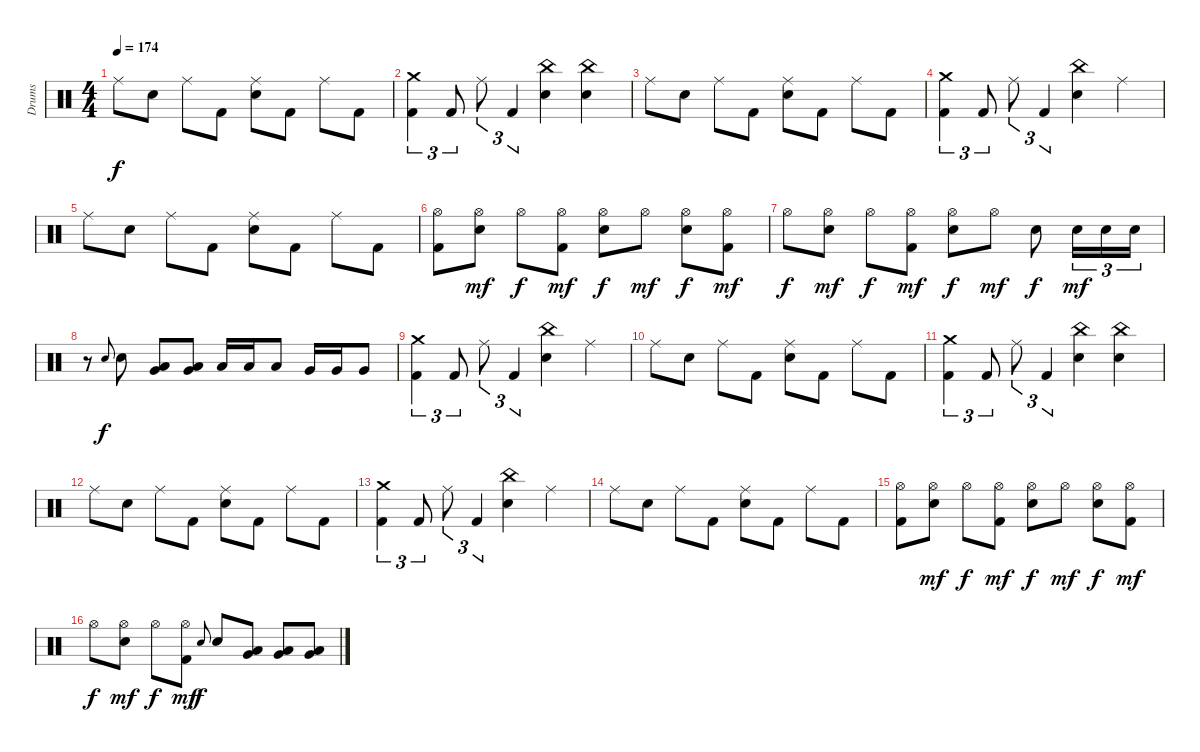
\track ("Drums" "Drums") {instrument percussion}
\staff {score}
\articulation defaults
\ts (4 4)
\tempo 174
\clef neutral
\ks c "Ride (middle)".8{dy f} "Electric Snare (hit)".8 "Ride (middle)".8 "Kick (hit) 2".8
("Ride (middle)" "Electric Snare (hit)").8 "Kick (hit) 2".8 "Ride (middle)".8 "Kick (hit) 2".8 |
("Crash medium (hit)" "Kick (hit) 2").4{tu (3 2)} "Kick (hit) 2".8{tu (3 2)} "Ride (middle)".8{tu (3 2)} "Kick (hit) 2".4{tu (3 2)} ("China (hit)" "Electric Snare (hit)").4 ("China (hit)" "Electric Snare (hit)").4 |
"Ride (middle)".8 "Electric Snare (hit)".8 "Ride (middle)".8 "Kick (hit) 2".8 ("Ride (middle)" "Electric Snare (hit)").8 "Kick (hit) 2".8 "Ride (middle)".8 "Kick (hit) 2".8 |
("Crash medium (hit)" "Kick (hit) 2").4{tu (3 2)} "Kick (hit) 2".8{tu (3 2)} "Ride (middle)".8{tu (3 2)} "Kick (hit) 2".4{tu (3 2)} ("China (hit)" "Electric Snare (hit)").4 "Ride (middle)".4 |
"Ride (middle)".8 "Electric Snare (hit)".8 "Ride (middle)".8 "Kick (hit) 2".8 ("Ride (middle)" "Electric Snare (hit)").8 "Kick (hit) 2".8 "Ride (middle)".8 "Kick (hit) 2".8 |
("Hi-Hat (open)" "Kick (hit) 2").8 ("Hi-Hat (open)" "Electric Snare (hit)").8{dy mf} "Hi-Hat (open)".8{dy f} ("Hi-Hat (open)" "Kick (hit) 2").8{dy mf} ("Hi-Hat (open)" "Electric Snare (hit)").8{dy f} "Hi-Hat (open)".8{dy mf} ("Hi-Hat (open)" "Electric Snare (hit)").8{dy f} ("Hi-Hat (open)" "Kick (hit) 2").8{dy mf} |
"Hi-Hat (open)".8{dy f} ("Hi-Hat (open)" "Electric Snare (hit)").8{dy mf} "Hi-Hat (open)".8{dy f} ("Hi-Hat (open)" "Kick (hit) 2").8{dy mf} ("Hi-Hat (open)" "Electric Snare (hit)").8{dy f} "Hi-Hat (open)".8{dy mf} "Electric Snare (hit)".8{dy f} "Electric Snare (hit)".16{tu (3 2) dy mf} "Electric Snare (hit)".16{tu (3 2)} "Electric Snare (hit)".16{tu (3 2)} |
r.8 "Electric Snare (hit)".8{gr onbeat dy f} "Electric Snare (hit)".8 ("Low Tom (hit)" "Very Low Tom (hit)").8 ("Low Tom (hit)" "Very Low Tom (hit)").8 "Low Tom (hit)".16 "Low Tom (hit)".16 "Low Tom (hit)".8 "Very Low Tom (hit)".16 "Very Low Tom (hit)".16 "Very Low Tom (hit)".8 |
("Crash medium (hit)" "Kick (hit) 2").4{tu (3 2)} "Kick (hit) 2".8{tu (3 2)} "Ride (middle)".8{tu (3 2)} "Kick (hit) 2".4{tu (3 2)} ("China (hit)" "Electric Snare (hit)").4 "Ride (middle)".4 |
"Ride (middle)".8 "Electric Snare (hit)".8 "Ride (middle)".8 "Kick (hit) 2".8 ("Ride (middle)" "Electric Snare (hit)").8 "Kick (hit) 2".8 "Ride (middle)".8 "Kick (hit) 2".8 |
("Crash medium (hit)" "Kick (hit) 2").4{tu (3 2)} "Kick (hit) 2".8{tu (3 2)} "Ride (middle)".8{tu (3 2)} "Kick (hit) 2".4{tu (3 2)} ("China (hit)" "Electric Snare (hit)").4 ("China (hit)" "Electric Snare (hit)").4 |
"Ride (middle)".8 "Electric Snare (hit)".8 "Ride (middle)".8 "Kick (hit) 2".8 ("Ride (middle)" "Electric Snare (hit)").8 "Kick (hit) 2".8 "Ride (middle)".8 "Kick (hit) 2".8 |
("Crash medium (hit)" "Kick (hit) 2").4{tu (3 2)} "Kick (hit) 2".8{tu (3 2)} "Ride (middle)".8{tu (3 2)} "Kick (hit) 2".4{tu (3 2)} ("China (hit)" "Electric Snare (hit)").4 "Ride (middle)".4 |
"Ride (middle)".8 "Electric Snare (hit)".8 "Ride (middle)".8 "Kick (hit) 2".8 ("Ride (middle)" "Electric Snare (hit)").8 "Kick (hit) 2".8 "Ride (middle)".8 "Kick (hit) 2".8 |
("Hi-Hat (open)" "Kick (hit) 2").8 ("Hi-Hat (open)" "Electric Snare (hit)").8{dy mf} "Hi-Hat (open)".8{dy f} ("Hi-Hat (open)" "Kick (hit) 2").8{dy mf} ("Hi-Hat (open)" "Electric Snare (hit)").8{dy f} "Hi-Hat (open)".8{dy mf} ("Hi-Hat (open)" "Electric Snare (hit)").8{dy f} ("Hi-Hat (open)" "Kick (hit) 2").8{dy mf} |
"Hi-Hat (open)".8{dy f} ("Hi-Hat (open)" "Electric Snare (hit)").8{dy mf} "Hi-Hat (open)".8{dy f} ("Hi-Hat (open)" "Kick (hit) 2").8{dy mf} "Electric Snare (hit)".8{gr onbeat dy f} "Electric Snare (hit)".8 ("Low Tom (hit)" "Very Low Tom (hit)").8 ("Low Tom (hit)" "Very Low Tom (hit)").8 ("Low Tom (hit)" "Very Low Tom (hit)").8
